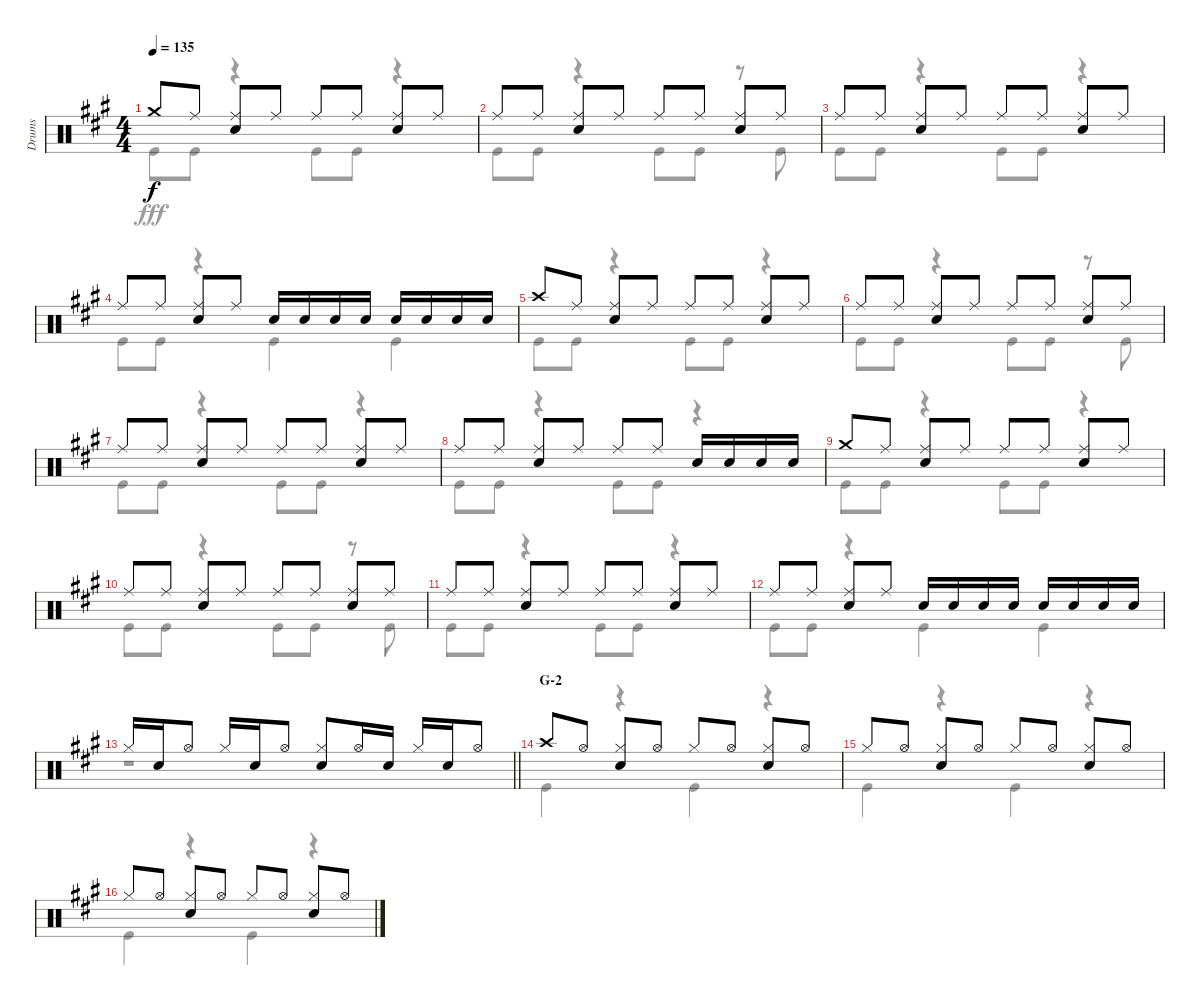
\track ("Drums" "Drums") {instrument percussion}
\staff {score}
\articulation defaults
\voice
\ts (4 4)
\tempo 135
\clef neutral
\ks a "Crash medium (hit)".8{dy f} "Ride (middle)".8
("Ride (middle)" "Snare (hit) 2").8 "Ride (middle)".8 "Ride (middle)".8 "Ride (middle)".8 ("Ride (middle)" "Snare (hit) 2").8 "Ride (middle)".8 |
"Ride (middle)".8 "Ride (middle)".8 ("Ride (middle)" "Snare (hit) 2").8 "Ride (middle)".8 "Ride (middle)".8 "Ride (middle)".8 ("Ride (middle)" "Snare (hit) 2").8 "Ride (middle)".8 |
"Ride (middle)".8 "Ride (middle)".8 ("Ride (middle)" "Snare (hit) 2").8 "Ride (middle)".8 "Ride (middle)".8 "Ride (middle)".8 ("Ride (middle)" "Snare (hit) 2").8 "Ride (middle)".8 |
"Ride (middle)".8 "Ride (middle)".8 ("Ride (middle)" "Snare (hit) 2").8 "Ride (middle)".8 "Snare (hit) 2".16 "Snare (hit) 2".16 "Snare (hit) 2".16 "Snare (hit) 2".16 "Snare (hit) 2".16 "Snare (hit) 2".16 "Snare (hit) 2".16 "Snare (hit) 2".16 |
"Crash high (hit)".8 "Ride (middle)".8 ("Ride (middle)" "Snare (hit) 2").8 "Ride (middle)".8 "Ride (middle)".8 "Ride (middle)".8 ("Ride (middle)" "Snare (hit) 2").8 "Ride (middle)".8 |
"Ride (middle)".8 "Ride (middle)".8 ("Ride (middle)" "Snare (hit) 2").8 "Ride (middle)".8 "Ride (middle)".8 "Ride (middle)".8 ("Ride (middle)" "Snare (hit) 2").8 "Ride (middle)".8 |
"Ride (middle)".8 "Ride (middle)".8 ("Ride (middle)" "Snare (hit) 2").8 "Ride (middle)".8 "Ride (middle)".8 "Ride (middle)".8 ("Ride (middle)" "Snare (hit) 2").8 "Ride (middle)".8 |
"Ride (middle)".8 "Ride (middle)".8 ("Ride (middle)" "Snare (hit) 2").8 "Ride (middle)".8 "Ride (middle)".8 "Ride (middle)".8 "Snare (hit) 2".16 "Snare (hit) 2".16 "Snare (hit) 2".16 "Snare (hit) 2".16 |
"Crash medium (hit)".8 "Ride (middle)".8 ("Ride (middle)" "Snare (hit) 2").8 "Ride (middle)".8 "Ride (middle)".8 "Ride (middle)".8 ("Ride (middle)" "Snare (hit) 2").8 "Ride (middle)".8 |
"Ride (middle)".8 "Ride (middle)".8 ("Ride (middle)" "Snare (hit) 2").8 "Ride (middle)".8 "Ride (middle)".8 "Ride (middle)".8 ("Ride (middle)" "Snare (hit) 2").8 "Ride (middle)".8 |
"Ride (middle)".8 "Ride (middle)".8 ("Ride (middle)" "Snare (hit) 2").8 "Ride (middle)".8 "Ride (middle)".8 "Ride (middle)".8 ("Ride (middle)" "Snare (hit) 2").8 "Ride (middle)".8 |
"Ride (middle)".8 "Ride (middle)".8 ("Ride (middle)" "Snare (hit) 2").8 "Ride (middle)".8 "Snare (hit) 2".16 "Snare (hit) 2".16 "Snare (hit) 2".16 "Snare (hit) 2".16 "Snare (hit) 2".16 "Snare (hit) 2".16 "Snare (hit) 2".16 "Snare (hit) 2".16 |
\barLineRight lightlight "Hi-Hat (closed)".16 "Snare (hit) 2".16 "Hi-Hat (open)".8 "Hi-Hat (closed)".16 "Snare (hit) 2".16 "Hi-Hat (open)".8
("Hi-Hat (closed)" "Snare (hit) 2").8 "Hi-Hat (open)".16 "Snare (hit) 2".16 "Hi-Hat (closed)".16 "Snare (hit) 2".16 "Hi-Hat (open)".8 |
\section ("" "G-2")
"Crash high (hit)".8 "Hi-Hat (open)".8 ("Hi-Hat (closed)" "Snare (hit) 2").8 "Hi-Hat (open)".8 "Hi-Hat (closed)".8 "Hi-Hat (open)".8 ("Hi-Hat (closed)" "Snare (hit) 2").8 "Hi-Hat (open)".8 |
"Hi-Hat (closed)".8 "Hi-Hat (open)".8 ("Hi-Hat (closed)" "Snare (hit) 2").8 "Hi-Hat (open)".8 "Hi-Hat (closed)".8 "Hi-Hat (open)".8 ("Hi-Hat (closed)" "Snare (hit) 2").8 "Hi-Hat (open)".8 |
"Hi-Hat (closed)".8 "Hi-Hat (open)".8 ("Hi-Hat (closed)" "Snare (hit) 2").8 "Hi-Hat (open)".8 "Hi-Hat (closed)".8 "Hi-Hat (open)".8 ("Hi-Hat (closed)" "Snare (hit) 2").8 "Hi-Hat (open)".8
\voice
\clef neutral
\ottava regular
\simile none
\ks a "Kick (hit)".8{dy fff} "Kick (hit)".8
r.4 "Kick (hit)".8 "Kick (hit)".8 r.4 |
"Kick (hit)".8 "Kick (hit)".8 r.4 "Kick (hit)".8 "Kick (hit)".8 r.8 "Kick (hit)".8 |
"Kick (hit)".8 "Kick (hit)".8 r.4 "Kick (hit)".8 "Kick (hit)".8 r.4 |
"Kick (hit)".8 "Kick (hit)".8 r.4 "Kick (hit)".4 "Kick (hit)".4 |
"Kick (hit)".8 "Kick (hit)".8 r.4 "Kick (hit)".8 "Kick (hit)".8 r.4 |
"Kick (hit)".8 "Kick (hit)".8 r.4 "Kick (hit)".8 "Kick (hit)".8 r.8 "Kick (hit)".8 |
"Kick (hit)".8 "Kick (hit)".8 r.4 "Kick (hit)".8 "Kick (hit)".8 r.4 |
"Kick (hit)".8 "Kick (hit)".8 r.4 "Kick (hit)".8 "Kick (hit)".8 r.4 |
"Kick (hit)".8 "Kick (hit)".8 r.4 "Kick (hit)".8 "Kick (hit)".8 r.4 |
"Kick (hit)".8 "Kick (hit)".8 r.4 "Kick (hit)".8 "Kick (hit)".8 r.8 "Kick (hit)".8 |
"Kick (hit)".8 "Kick (hit)".8 r.4 "Kick (hit)".8 "Kick (hit)".8 r.4 |
"Kick (hit)".8 "Kick (hit)".8 r.4 "Kick (hit)".4 "Kick (hit)".4 |
\barLineRight lightlight
r.1 |
"Kick (hit)".4 r.4 "Kick (hit)".4 r.4 |
"Kick (hit)".4 r.4 "Kick (hit)".4 r.4 |
"Kick (hit)".4 r.4 "Kick (hit)".4 r.4
